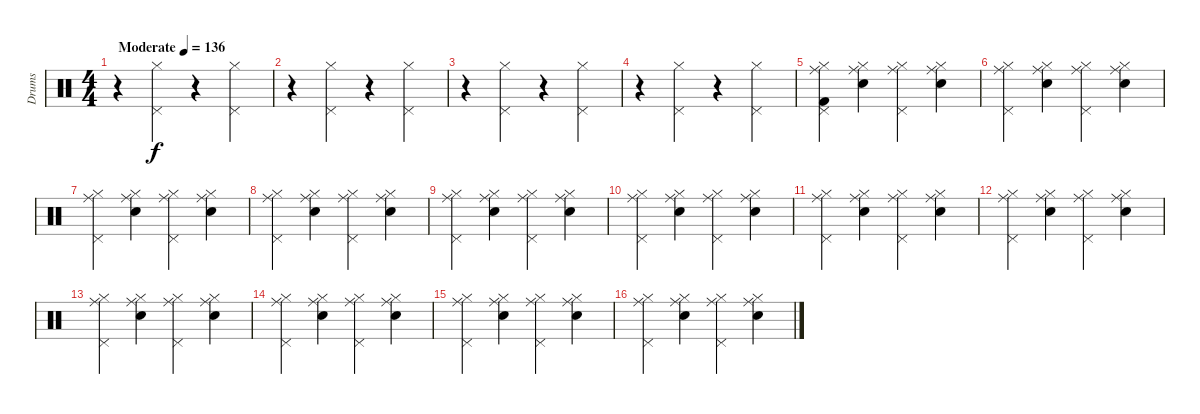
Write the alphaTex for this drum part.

\track ("Drums" "Drums") {instrument percussion}
\staff {score}
\articulation defaults
\ts (4 4)
\tempo (136 "Moderate")
\clef neutral
\ks c
r.4{dy f} ("Hi-Hat (closed)" "Pedal Hi-Hat (hit)").4 r.4 ("Hi-Hat (closed)" "Pedal Hi-Hat (hit)").4 |
r.4 ("Hi-Hat (closed)" "Pedal Hi-Hat (hit)").4 r.4 ("Hi-Hat (closed)" "Pedal Hi-Hat (hit)").4 |
r.4 ("Hi-Hat (closed)" "Pedal Hi-Hat (hit)").4 r.4 ("Hi-Hat (closed)" "Pedal Hi-Hat (hit)").4 |
r.4 ("Hi-Hat (closed)" "Pedal Hi-Hat (hit)").4 r.4 ("Hi-Hat (closed)" "Pedal Hi-Hat (hit)").4 |
("Kick (hit) 2" "Hi-Hat (closed)" "Ride (middle)" "Pedal Hi-Hat (hit)").4 ("Hi-Hat (closed)" "Ride (middle)" "Snare (hit) 2").4 ("Hi-Hat (closed)" "Ride (middle)" "Pedal Hi-Hat (hit)").4 ("Hi-Hat (closed)" "Ride (middle)" "Snare (hit) 2").4 |
("Hi-Hat (closed)" "Ride (middle)" "Pedal Hi-Hat (hit)").4 ("Hi-Hat (closed)" "Ride (middle)" "Snare (hit) 2").4 ("Hi-Hat (closed)" "Ride (middle)" "Pedal Hi-Hat (hit)").4 ("Hi-Hat (closed)" "Ride (middle)" "Snare (hit) 2").4 |
("Hi-Hat (closed)" "Ride (middle)" "Pedal Hi-Hat (hit)").4 ("Hi-Hat (closed)" "Ride (middle)" "Snare (hit) 2").4 ("Hi-Hat (closed)" "Ride (middle)" "Pedal Hi-Hat (hit)").4 ("Hi-Hat (closed)" "Ride (middle)" "Snare (hit) 2").4 |
("Hi-Hat (closed)" "Ride (middle)" "Pedal Hi-Hat (hit)").4 ("Hi-Hat (closed)" "Ride (middle)" "Snare (hit) 2").4 ("Hi-Hat (closed)" "Ride (middle)" "Pedal Hi-Hat (hit)").4 ("Hi-Hat (closed)" "Ride (middle)" "Snare (hit) 2").4 |
("Hi-Hat (closed)" "Ride (middle)" "Pedal Hi-Hat (hit)").4 ("Hi-Hat (closed)" "Ride (middle)" "Snare (hit) 2").4 ("Hi-Hat (closed)" "Ride (middle)" "Pedal Hi-Hat (hit)").4 ("Hi-Hat (closed)" "Ride (middle)" "Snare (hit) 2").4 |
("Hi-Hat (closed)" "Ride (middle)" "Pedal Hi-Hat (hit)").4 ("Hi-Hat (closed)" "Ride (middle)" "Snare (hit) 2").4 ("Hi-Hat (closed)" "Ride (middle)" "Pedal Hi-Hat (hit)").4 ("Hi-Hat (closed)" "Ride (middle)" "Snare (hit) 2").4 |
("Hi-Hat (closed)" "Ride (middle)" "Pedal Hi-Hat (hit)").4 ("Hi-Hat (closed)" "Ride (middle)" "Snare (hit) 2").4 ("Hi-Hat (closed)" "Ride (middle)" "Pedal Hi-Hat (hit)").4 ("Hi-Hat (closed)" "Ride (middle)" "Snare (hit) 2").4 |
("Hi-Hat (closed)" "Ride (middle)" "Pedal Hi-Hat (hit)").4 ("Hi-Hat (closed)" "Ride (middle)" "Snare (hit) 2").4 ("Hi-Hat (closed)" "Ride (middle)" "Pedal Hi-Hat (hit)").4 ("Hi-Hat (closed)" "Ride (middle)" "Snare (hit) 2").4 |
("Hi-Hat (closed)" "Ride (middle)" "Pedal Hi-Hat (hit)").4 ("Hi-Hat (closed)" "Ride (middle)" "Snare (hit) 2").4 ("Hi-Hat (closed)" "Ride (middle)" "Pedal Hi-Hat (hit)").4 ("Hi-Hat (closed)" "Ride (middle)" "Snare (hit) 2").4 |
("Hi-Hat (closed)" "Ride (middle)" "Pedal Hi-Hat (hit)").4 ("Hi-Hat (closed)" "Ride (middle)" "Snare (hit) 2").4 ("Hi-Hat (closed)" "Ride (middle)" "Pedal Hi-Hat (hit)").4 ("Hi-Hat (closed)" "Ride (middle)" "Snare (hit) 2").4 |
("Hi-Hat (closed)" "Ride (middle)" "Pedal Hi-Hat (hit)").4 ("Hi-Hat (closed)" "Ride (middle)" "Snare (hit) 2").4 ("Hi-Hat (closed)" "Ride (middle)" "Pedal Hi-Hat (hit)").4 ("Hi-Hat (closed)" "Ride (middle)" "Snare (hit) 2").4 |
("Hi-Hat (closed)" "Ride (middle)" "Pedal Hi-Hat (hit)").4 ("Hi-Hat (closed)" "Ride (middle)" "Snare (hit) 2").4 ("Hi-Hat (closed)" "Ride (middle)" "Pedal Hi-Hat (hit)").4 ("Hi-Hat (closed)" "Ride (middle)" "Snare (hit) 2").4
